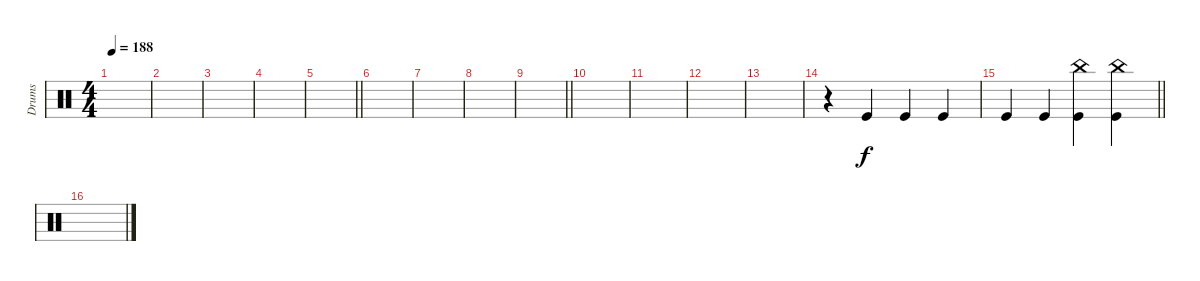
\track ("Drums" "Drums") {instrument percussion}
\staff
\articulation defaults
\ts (4 4)
\tempo 188
\clef neutral
\ks c
|
|
|
|
\barLineRight lightlight
|
|
|
|
\barLineRight lightlight
|
|
|
|
|
r.4 "Kick (hit)".4 "Kick (hit)".4 "Kick (hit)".4 |
\barLineRight lightlight "Kick (hit)".4 "Kick (hit)".4
("China (hit)" "Kick (hit)").4 ("China (hit)" "Kick (hit)").4 |
\section ("" "")
